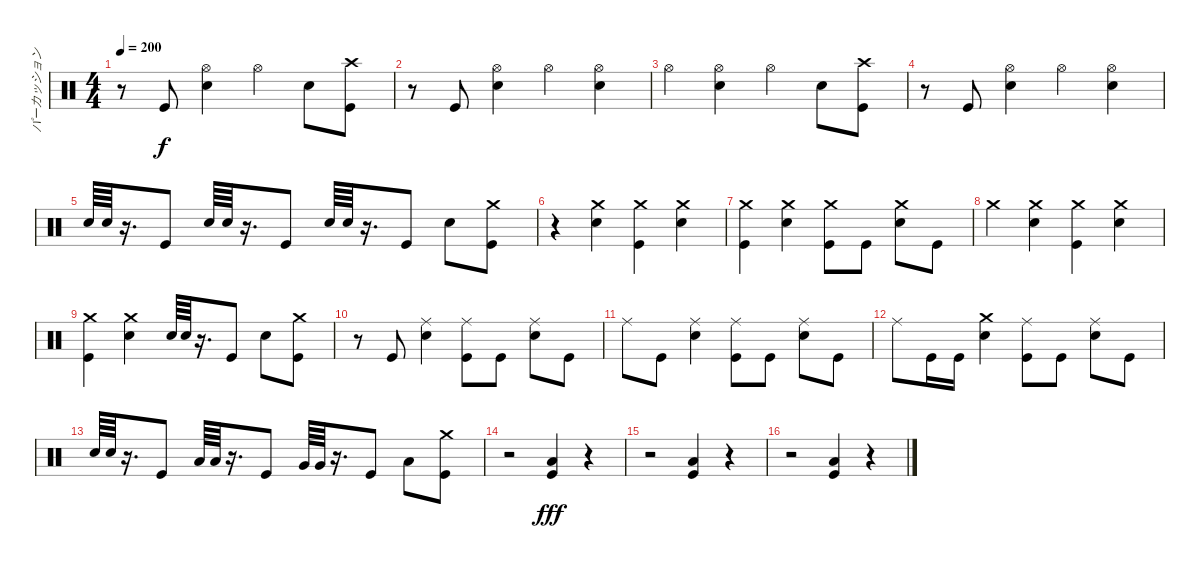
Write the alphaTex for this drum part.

\track ("パーカッション" "パーカッション") {instrument percussion}
\staff {score}
\articulation defaults
\ts (4 4)
\tempo 200
\clef neutral
\ks c
r.8{dy f} "Kick (hit)".8 ("Hi-Hat (open)" "Snare (hit) 2").4 "Hi-Hat (open)".4 "Snare (hit) 2".8 ("Kick (hit)" "Crash high (hit)").8 |
r.8 "Kick (hit)".8 ("Hi-Hat (open)" "Snare (hit) 2").4 "Hi-Hat (open)".4 ("Snare (hit) 2" "Hi-Hat (open)").4 |
"Hi-Hat (open)".4 ("Snare (hit) 2" "Hi-Hat (open)").4 "Hi-Hat (open)".4 "Snare (hit) 2".8 ("Kick (hit)" "Crash high (hit)").8 |
r.8 "Kick (hit)".8 ("Hi-Hat (open)" "Snare (hit) 2").4 "Hi-Hat (open)".4 ("Snare (hit) 2" "Hi-Hat (open)").4 |
"Snare (hit) 2".64 "Snare (hit) 2".64 r.16{d} "Kick (hit)".8 "Snare (hit) 2".64 "Snare (hit) 2".64 r.16{d} "Kick (hit)".8 "Snare (hit) 2".64 "Snare (hit) 2".64 r.16{d} "Kick (hit)".8 "Snare (hit) 2".8 ("Crash medium (hit)" "Kick (hit)").8 |
r.4 ("Crash medium (hit)" "Snare (hit) 2").4 ("Crash medium (hit)" "Kick (hit)").4 ("Crash medium (hit)" "Snare (hit) 2").4 |
("Crash medium (hit)" "Kick (hit)").4 ("Snare (hit) 2" "Crash medium (hit)").4 ("Kick (hit)" "Crash medium (hit)").8 "Kick (hit)".8 ("Snare (hit) 2" "Crash medium (hit)").8 "Kick (hit)".8 |
"Crash medium (hit)".4 ("Snare (hit) 2" "Crash medium (hit)").4 ("Crash medium (hit)" "Kick (hit)").4 ("Snare (hit) 2" "Crash medium (hit)").4 |
("Crash medium (hit)" "Kick (hit)").4 ("Snare (hit) 2" "Crash medium (hit)").4 "Snare (hit) 2".64 "Snare (hit) 2".64 r.16{d} "Kick (hit)".8 "Snare (hit) 2".8 ("Crash medium (hit)" "Kick (hit)").8 |
r.8 "Kick (hit)".8 ("Ride (middle)" "Snare (hit) 2").4 ("Ride (middle)" "Kick (hit)").8 "Kick (hit)".8 ("Ride (middle)" "Snare (hit) 2").8 "Kick (hit)".8 |
"Ride (middle)".8 "Kick (hit)".8 ("Snare (hit) 2" "Ride (middle)").4 ("Ride (middle)" "Kick (hit)").8 "Kick (hit)".8 ("Ride (middle)" "Snare (hit) 2").8 "Kick (hit)".8 |
"Ride (middle)".8 "Kick (hit)".16 "Kick (hit)".16 ("Snare (hit) 2" "Crash medium (hit)").4 ("Ride (middle)" "Kick (hit)").8 "Kick (hit)".8 ("Snare (hit) 2" "Ride (middle)").8 "Kick (hit)".8 |
"Snare (hit) 2".64 "Snare (hit) 2".64 r.16{d} "Kick (hit)".8 "Low Tom (hit)".64 "Low Tom (hit)".64 r.16{d} "Kick (hit)".8 "Very Low Tom (hit)".64 "Very Low Tom (hit)".64 r.16{d} "Kick (hit)".8 "Low Floor Tom (hit)".8 ("Kick (hit)" "Crash medium (hit)").8 |
r.2 ("Low Floor Tom (hit)" "Kick (hit)").4{dy fff} r.4 |
r.2 ("Low Floor Tom (hit)" "Kick (hit)").4 r.4 |
r.2 ("Low Floor Tom (hit)" "Kick (hit)").4 r.4
